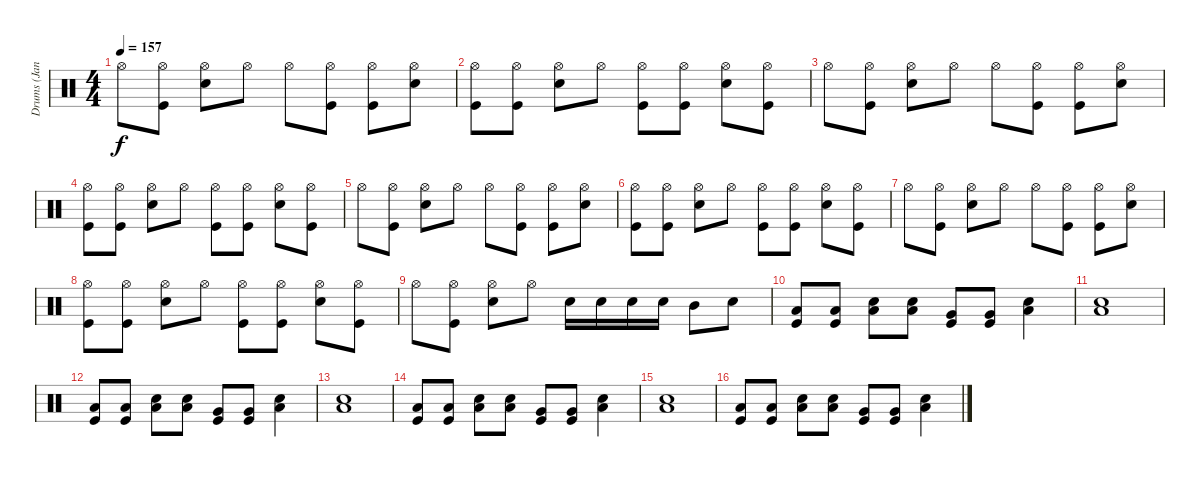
\track ("Drums (Janet)" "Drums (Jan") {instrument percussion}
\staff {score}
\articulation defaults
\ts (4 4)
\tempo 157
\clef neutral
\ks c "Hi-Hat (open)".8{dy f}
("Hi-Hat (open)" "Kick (hit)").8 ("Hi-Hat (open)" "Snare (hit) 2").8 "Hi-Hat (open)".8 "Hi-Hat (open)".8 ("Hi-Hat (open)" "Kick (hit)").8 ("Hi-Hat (open)" "Kick (hit)").8 ("Hi-Hat (open)" "Snare (hit) 2").8 |
("Hi-Hat (open)" "Kick (hit)").8 ("Hi-Hat (open)" "Kick (hit)").8 ("Hi-Hat (open)" "Snare (hit) 2").8 "Hi-Hat (open)".8 ("Hi-Hat (open)" "Kick (hit)").8 ("Hi-Hat (open)" "Kick (hit)").8 ("Hi-Hat (open)" "Snare (hit) 2").8 ("Hi-Hat (open)" "Kick (hit)").8 |
"Hi-Hat (open)".8 ("Hi-Hat (open)" "Kick (hit)").8 ("Hi-Hat (open)" "Snare (hit) 2").8 "Hi-Hat (open)".8 "Hi-Hat (open)".8 ("Hi-Hat (open)" "Kick (hit)").8 ("Hi-Hat (open)" "Kick (hit)").8 ("Hi-Hat (open)" "Snare (hit) 2").8 |
("Hi-Hat (open)" "Kick (hit)").8 ("Hi-Hat (open)" "Kick (hit)").8 ("Hi-Hat (open)" "Snare (hit) 2").8 "Hi-Hat (open)".8 ("Hi-Hat (open)" "Kick (hit)").8 ("Hi-Hat (open)" "Kick (hit)").8 ("Hi-Hat (open)" "Snare (hit) 2").8 ("Hi-Hat (open)" "Kick (hit)").8 |
"Hi-Hat (open)".8 ("Hi-Hat (open)" "Kick (hit)").8 ("Hi-Hat (open)" "Snare (hit) 2").8 "Hi-Hat (open)".8 "Hi-Hat (open)".8 ("Hi-Hat (open)" "Kick (hit)").8 ("Hi-Hat (open)" "Kick (hit)").8 ("Hi-Hat (open)" "Snare (hit) 2").8 |
("Hi-Hat (open)" "Kick (hit)").8 ("Hi-Hat (open)" "Kick (hit)").8 ("Hi-Hat (open)" "Snare (hit) 2").8 "Hi-Hat (open)".8 ("Hi-Hat (open)" "Kick (hit)").8 ("Hi-Hat (open)" "Kick (hit)").8 ("Hi-Hat (open)" "Snare (hit) 2").8 ("Hi-Hat (open)" "Kick (hit)").8 |
"Hi-Hat (open)".8 ("Hi-Hat (open)" "Kick (hit)").8 ("Hi-Hat (open)" "Snare (hit) 2").8 "Hi-Hat (open)".8 "Hi-Hat (open)".8 ("Hi-Hat (open)" "Kick (hit)").8 ("Hi-Hat (open)" "Kick (hit)").8 ("Hi-Hat (open)" "Snare (hit) 2").8 |
("Hi-Hat (open)" "Kick (hit)").8 ("Hi-Hat (open)" "Kick (hit)").8 ("Hi-Hat (open)" "Snare (hit) 2").8 "Hi-Hat (open)".8 ("Hi-Hat (open)" "Kick (hit)").8 ("Hi-Hat (open)" "Kick (hit)").8 ("Hi-Hat (open)" "Snare (hit) 2").8 ("Hi-Hat (open)" "Kick (hit)").8 |
"Hi-Hat (open)".8 ("Hi-Hat (open)" "Kick (hit)").8 ("Hi-Hat (open)" "Snare (hit) 2").8 "Hi-Hat (open)".8 "Snare (hit) 2".16 "Snare (hit) 2".16 "Snare (hit) 2".16 "Snare (hit) 2".16 "Mid Tom (hit)".8 "Snare (hit) 2".8 |
("Low Tom (hit)" "Kick (hit)").8 ("Low Tom (hit)" "Kick (hit)").8 ("Low Tom (hit)" "Snare (hit) 2").8 ("Low Tom (hit)" "Snare (hit) 2").8 ("Very Low Tom (hit)" "Kick (hit)").8 ("Very Low Tom (hit)" "Kick (hit)").8 ("Low Tom (hit)" "Snare (hit) 2").4 |
("Low Tom (hit)" "Snare (hit) 2").1 |
("Low Tom (hit)" "Kick (hit)").8 ("Low Tom (hit)" "Kick (hit)").8 ("Low Tom (hit)" "Snare (hit) 2").8 ("Low Tom (hit)" "Snare (hit) 2").8 ("Very Low Tom (hit)" "Kick (hit)").8 ("Very Low Tom (hit)" "Kick (hit)").8 ("Low Tom (hit)" "Snare (hit) 2").4 |
("Low Tom (hit)" "Snare (hit) 2").1 |
("Low Tom (hit)" "Kick (hit)").8 ("Low Tom (hit)" "Kick (hit)").8 ("Low Tom (hit)" "Snare (hit) 2").8 ("Low Tom (hit)" "Snare (hit) 2").8 ("Very Low Tom (hit)" "Kick (hit)").8 ("Very Low Tom (hit)" "Kick (hit)").8 ("Low Tom (hit)" "Snare (hit) 2").4 |
("Low Tom (hit)" "Snare (hit) 2").1 |
("Low Tom (hit)" "Kick (hit)").8 ("Low Tom (hit)" "Kick (hit)").8 ("Low Tom (hit)" "Snare (hit) 2").8 ("Low Tom (hit)" "Snare (hit) 2").8 ("Very Low Tom (hit)" "Kick (hit)").8 ("Very Low Tom (hit)" "Kick (hit)").8 ("Low Tom (hit)" "Snare (hit) 2").4
